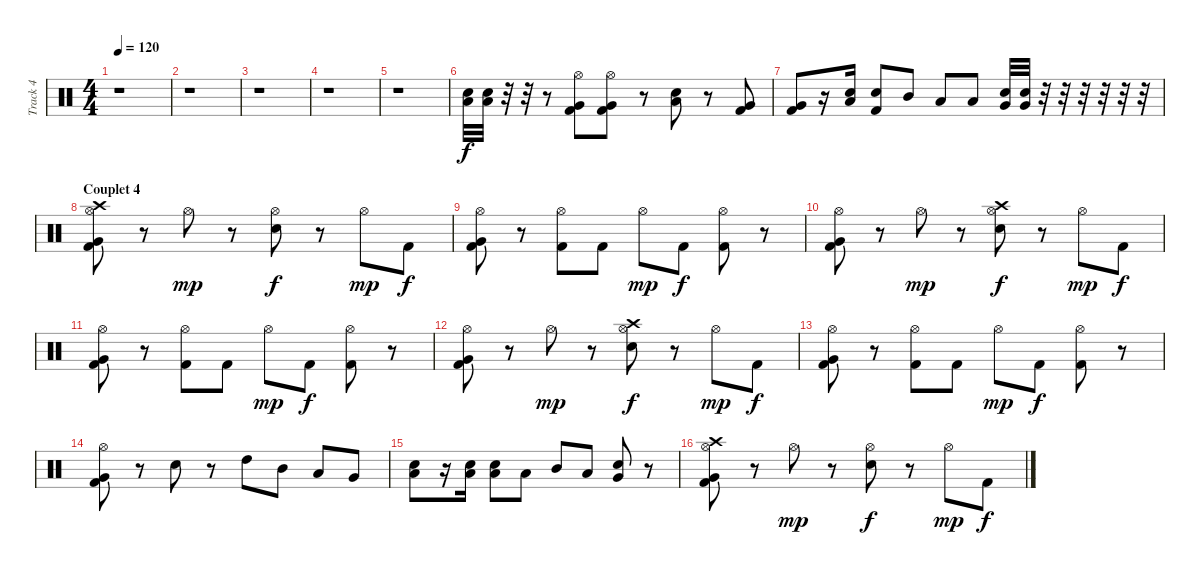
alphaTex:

\track ("Track 4" "Track 4") {instrument percussion}
\staff {score}
\articulation defaults
\ts (4 4)
\tempo 120
\clef neutral
\ks c
r.1{dy f} |
r.1 |
r.1 |
r.1 |
r.1 |
("Electric Snare (hit)" "Low Tom (hit)").32 ("Electric Snare (hit)" "Low Tom (hit)").32 r.32 r.32 r.8 ("Kick (hit) 2" "Very Low Tom (hit)" "Hi-Hat (open)").8 ("Kick (hit) 2" "Very Low Tom (hit)" "Hi-Hat (open)").8 r.8 ("Electric Snare (hit)" "Low Tom (hit)").8 r.8 ("Kick (hit) 2" "Very Low Tom (hit)").8 |
("Kick (hit) 2" "Very Low Tom (hit)").8 r.16 ("Low Tom (hit)" "Electric Snare (hit)").16 ("Kick (hit) 2" "Electric Snare (hit)").8 "Mid Tom (hit)".8 "Low Tom (hit)".8 "Low Floor Tom (hit)".8 ("Very Low Tom (hit)" "Electric Snare (hit)").32 ("Very Low Tom (hit)" "Electric Snare (hit)").32 r.32 r.32 r.32 r.32 r.32 r.32 |
\section ("" "Couplet 4")
("Hi-Hat (open)" "Kick (hit) 2" "Very Low Tom (hit)" "Crash high (hit)").8 r.8 "Hi-Hat (open)".8{dy mp} r.8 ("Hi-Hat (open)" "Snare (hit) 2").8{dy f} r.8 "Hi-Hat (open)".8{dy mp} "Kick (hit) 2".8{dy f} |
("Hi-Hat (open)" "Kick (hit) 2" "Very Low Tom (hit)").8 r.8 ("Hi-Hat (open)" "Kick (hit) 2").8 "Kick (hit) 2".8 "Hi-Hat (open)".8{dy mp} "Kick (hit) 2".8{dy f} ("Hi-Hat (open)" "Kick (hit) 2").8 r.8 |
("Hi-Hat (open)" "Kick (hit) 2" "Very Low Tom (hit)").8 r.8 "Hi-Hat (open)".8{dy mp} r.8 ("Hi-Hat (open)" "Snare (hit) 2" "Crash high (hit)").8{dy f} r.8 "Hi-Hat (open)".8{dy mp} "Kick (hit) 2".8{dy f} |
("Hi-Hat (open)" "Kick (hit) 2" "Very Low Tom (hit)").8 r.8 ("Hi-Hat (open)" "Kick (hit) 2").8 "Kick (hit) 2".8 "Hi-Hat (open)".8{dy mp} "Kick (hit) 2".8{dy f} ("Hi-Hat (open)" "Kick (hit) 2").8 r.8 |
("Hi-Hat (open)" "Kick (hit) 2" "Very Low Tom (hit)").8 r.8 "Hi-Hat (open)".8{dy mp} r.8 ("Hi-Hat (open)" "Snare (hit) 2" "Crash high (hit)").8{dy f} r.8 "Hi-Hat (open)".8{dy mp} "Kick (hit) 2".8{dy f} |
("Hi-Hat (open)" "Kick (hit) 2" "Very Low Tom (hit)").8 r.8 ("Hi-Hat (open)" "Kick (hit) 2").8 "Kick (hit) 2".8 "Hi-Hat (open)".8{dy mp} "Kick (hit) 2".8{dy f} ("Hi-Hat (open)" "Kick (hit) 2").8 r.8 |
("Hi-Hat (open)" "Kick (hit) 2" "Very Low Tom (hit)").8 r.8 "Snare (hit) 2".8 r.8 "High Tom (hit)".8 "Mid Tom (hit)".8 "Low Tom (hit)".8 "Very Low Tom (hit)".8 |
("Low Floor Tom (hit)" "Snare (hit) 2").8 r.16 ("Low Tom (hit)" "Electric Snare (hit)").16 ("Low Tom (hit)" "Electric Snare (hit)").8 "Low Tom (hit)".8 "Mid Tom (hit)".8 "Low Tom (hit)".8 ("Very Low Tom (hit)" "Electric Snare (hit)").8 r.8 |
("Hi-Hat (open)" "Kick (hit) 2" "Very Low Tom (hit)" "Crash high (hit)").8 r.8 "Hi-Hat (open)".8{dy mp} r.8 ("Hi-Hat (open)" "Snare (hit) 2").8{dy f} r.8 "Hi-Hat (open)".8{dy mp} "Kick (hit) 2".8{dy f}
